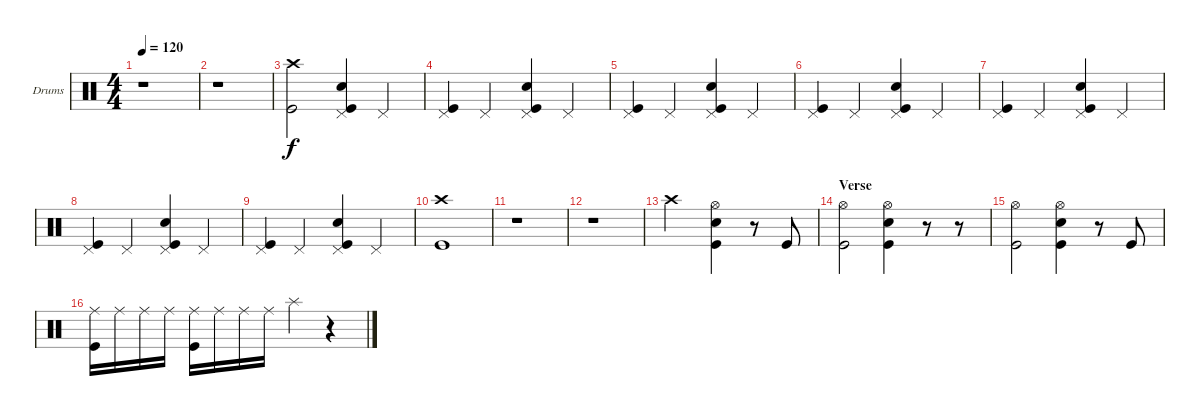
\bracketExtendMode groupsimilarinstruments
\firstSystemTrackNameOrientation horizontal
\otherSystemsTrackNameOrientation horizontal
\track ("Drumkit" "Drums") {instrument percussion}
\staff {score}
\articulation defaults
\ts (4 4)
\tempo 120
\clef neutral
\ks c
r.1{dy f} |
r.1 |
("Crash high (hit)" "Kick (hit)").2 ("Pedal Hi-Hat (hit)" "Snare (hit) 2" "Kick (hit)").4 "Pedal Hi-Hat (hit)".4 |
("Pedal Hi-Hat (hit)" "Kick (hit)").4 "Pedal Hi-Hat (hit)".4 ("Pedal Hi-Hat (hit)" "Snare (hit) 2" "Kick (hit)").4 "Pedal Hi-Hat (hit)".4 |
("Pedal Hi-Hat (hit)" "Kick (hit)").4 "Pedal Hi-Hat (hit)".4 ("Pedal Hi-Hat (hit)" "Snare (hit) 2" "Kick (hit)").4 "Pedal Hi-Hat (hit)".4 |
("Pedal Hi-Hat (hit)" "Kick (hit)").4 "Pedal Hi-Hat (hit)".4 ("Pedal Hi-Hat (hit)" "Snare (hit) 2" "Kick (hit)").4 "Pedal Hi-Hat (hit)".4 |
("Pedal Hi-Hat (hit)" "Kick (hit)").4 "Pedal Hi-Hat (hit)".4 ("Pedal Hi-Hat (hit)" "Snare (hit) 2" "Kick (hit)").4 "Pedal Hi-Hat (hit)".4 |
("Pedal Hi-Hat (hit)" "Kick (hit)").4 "Pedal Hi-Hat (hit)".4 ("Pedal Hi-Hat (hit)" "Snare (hit) 2" "Kick (hit)").4 "Pedal Hi-Hat (hit)".4 |
("Pedal Hi-Hat (hit)" "Kick (hit)").4 "Pedal Hi-Hat (hit)".4 ("Pedal Hi-Hat (hit)" "Snare (hit) 2" "Kick (hit)").4 "Pedal Hi-Hat (hit)".4 |
("Crash high (hit)" "Kick (hit)").1 |
r.1 |
r.1 |
"Crash high (hit)".2 ("Hi-Hat (open)" "Snare (hit) 2" "Kick (hit)").4 r.8 "Kick (hit)".8 |
\section ("" "Verse")
("Hi-Hat (open)" "Kick (hit)").2 ("Hi-Hat (open)" "Snare (hit) 2" "Kick (hit)").4 r.8 r.8 |
("Hi-Hat (open)" "Kick (hit)").2 ("Hi-Hat (open)" "Snare (hit) 2" "Kick (hit)").4 r.8 "Kick (hit)".8 |
("Ride (middle)" "Kick (hit)").16 "Ride (middle)".16 "Ride (middle)".16 "Ride (middle)".16 ("Ride (middle)" "Kick (hit)").16 "Ride (middle)".16 "Ride (middle)".16 "Ride (middle)".16 "Splash (hit)".4 r.4
